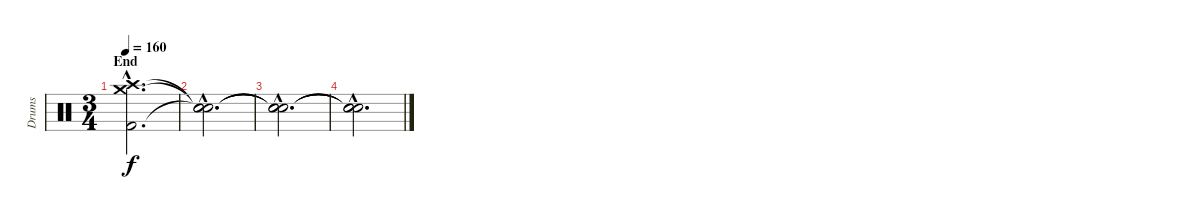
\track ("Drums" "Drums") {instrument percussion}
\staff {score}
\articulation defaults
\ts (3 4)
\section ("" "End")
\tempo 160
\clef neutral
\ks c
("Crash medium (hit)"{hac} "Crash high (hit)"{hac} "Kick (hit) 2"{hac}).2{d dy f} |
("Snare (hit)"{hac t} "Snare (hit)"{hac t} "Snare (hit)"{hac t}).2{d} |
("Snare (hit)"{hac t} "Snare (hit)"{hac t} "Snare (hit)"{hac t}).2{d} |
("Snare (hit)"{hac t} "Snare (hit)"{hac t} "Snare (hit)"{hac t}).2{d}
